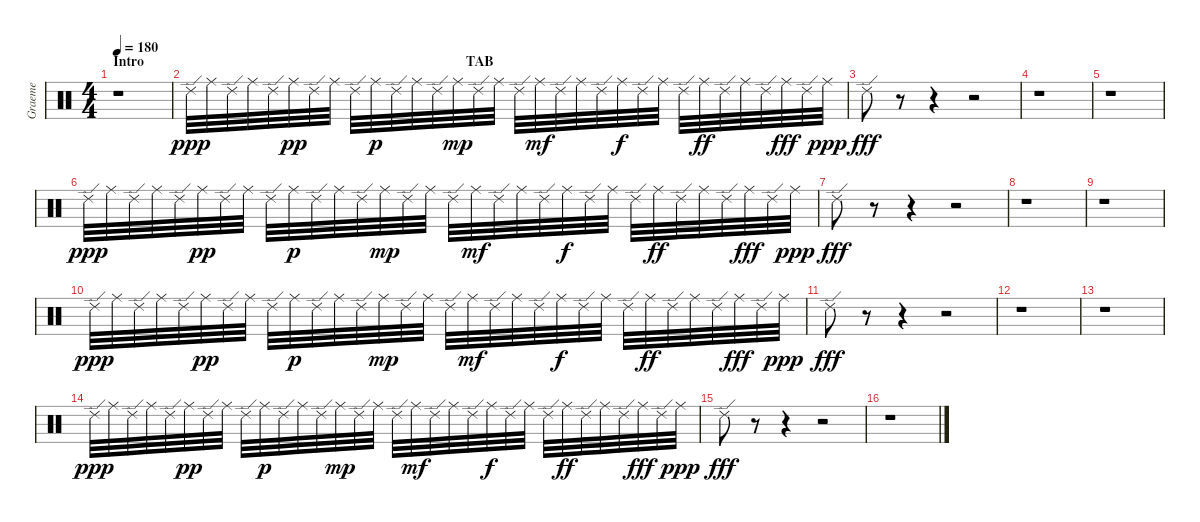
\track ("Graeme" "Graeme") {instrument percussion}
\staff {score}
\articulation defaults
\ts (4 4)
\section ("" "Intro                                                                                            TAB")
\tempo 180
\clef neutral
\ks c
r.1{dy ppp} |
"Ride (edge) 2".32 "Ride (middle)".32 "Ride (edge) 2".32 "Ride (middle)".32 "Ride (edge) 2".32 "Ride (middle)".32{dy pp} "Ride (edge) 2".32 "Ride (middle)".32 "Ride (edge) 2".32 "Ride (middle)".32{dy p} "Ride (edge) 2".32 "Ride (middle)".32 "Ride (edge) 2".32 "Ride (middle)".32{dy mp} "Ride (edge) 2".32 "Ride (middle)".32 "Ride (edge) 2".32 "Ride (middle)".32{dy mf} "Ride (edge) 2".32 "Ride (middle)".32 "Ride (edge) 2".32 "Ride (middle)".32{dy f} "Ride (edge) 2".32 "Ride (middle)".32 "Ride (edge) 2".32 "Ride (middle)".32{dy ff} "Ride (edge) 2".32 "Ride (middle)".32 "Ride (edge) 2".32 "Ride (middle)".32{dy fff} "Ride (edge) 2".32 "Ride (middle)".32{dy ppp} |
"Ride (edge) 2".8{dy fff} r.8 r.4 r.2 |
r.1 |
r.1 |
"Ride (edge) 2".32{dy ppp} "Ride (middle)".32 "Ride (edge) 2".32 "Ride (middle)".32 "Ride (edge) 2".32 "Ride (middle)".32{dy pp} "Ride (edge) 2".32 "Ride (middle)".32 "Ride (edge) 2".32 "Ride (middle)".32{dy p} "Ride (edge) 2".32 "Ride (middle)".32 "Ride (edge) 2".32 "Ride (middle)".32{dy mp} "Ride (edge) 2".32 "Ride (middle)".32 "Ride (edge) 2".32 "Ride (middle)".32{dy mf} "Ride (edge) 2".32 "Ride (middle)".32 "Ride (edge) 2".32 "Ride (middle)".32{dy f} "Ride (edge) 2".32 "Ride (middle)".32 "Ride (edge) 2".32 "Ride (middle)".32{dy ff} "Ride (edge) 2".32 "Ride (middle)".32 "Ride (edge) 2".32 "Ride (middle)".32{dy fff} "Ride (edge) 2".32 "Ride (middle)".32{dy ppp} |
"Ride (edge) 2".8{dy fff} r.8 r.4 r.2 |
r.1 |
r.1 |
"Ride (edge) 2".32{dy ppp} "Ride (middle)".32 "Ride (edge) 2".32 "Ride (middle)".32 "Ride (edge) 2".32 "Ride (middle)".32{dy pp} "Ride (edge) 2".32 "Ride (middle)".32 "Ride (edge) 2".32 "Ride (middle)".32{dy p} "Ride (edge) 2".32 "Ride (middle)".32 "Ride (edge) 2".32 "Ride (middle)".32{dy mp} "Ride (edge) 2".32 "Ride (middle)".32 "Ride (edge) 2".32 "Ride (middle)".32{dy mf} "Ride (edge) 2".32 "Ride (middle)".32 "Ride (edge) 2".32 "Ride (middle)".32{dy f} "Ride (edge) 2".32 "Ride (middle)".32 "Ride (edge) 2".32 "Ride (middle)".32{dy ff} "Ride (edge) 2".32 "Ride (middle)".32 "Ride (edge) 2".32 "Ride (middle)".32{dy fff} "Ride (edge) 2".32 "Ride (middle)".32{dy ppp} |
"Ride (edge) 2".8{dy fff} r.8 r.4 r.2 |
r.1 |
r.1 |
"Ride (edge) 2".32{dy ppp} "Ride (middle)".32 "Ride (edge) 2".32 "Ride (middle)".32 "Ride (edge) 2".32 "Ride (middle)".32{dy pp} "Ride (edge) 2".32 "Ride (middle)".32 "Ride (edge) 2".32 "Ride (middle)".32{dy p} "Ride (edge) 2".32 "Ride (middle)".32 "Ride (edge) 2".32 "Ride (middle)".32{dy mp} "Ride (edge) 2".32 "Ride (middle)".32 "Ride (edge) 2".32 "Ride (middle)".32{dy mf} "Ride (edge) 2".32 "Ride (middle)".32 "Ride (edge) 2".32 "Ride (middle)".32{dy f} "Ride (edge) 2".32 "Ride (middle)".32 "Ride (edge) 2".32 "Ride (middle)".32{dy ff} "Ride (edge) 2".32 "Ride (middle)".32 "Ride (edge) 2".32 "Ride (middle)".32{dy fff} "Ride (edge) 2".32 "Ride (middle)".32{dy ppp} |
"Ride (edge) 2".8{dy fff} r.8 r.4 r.2 |
r.1
